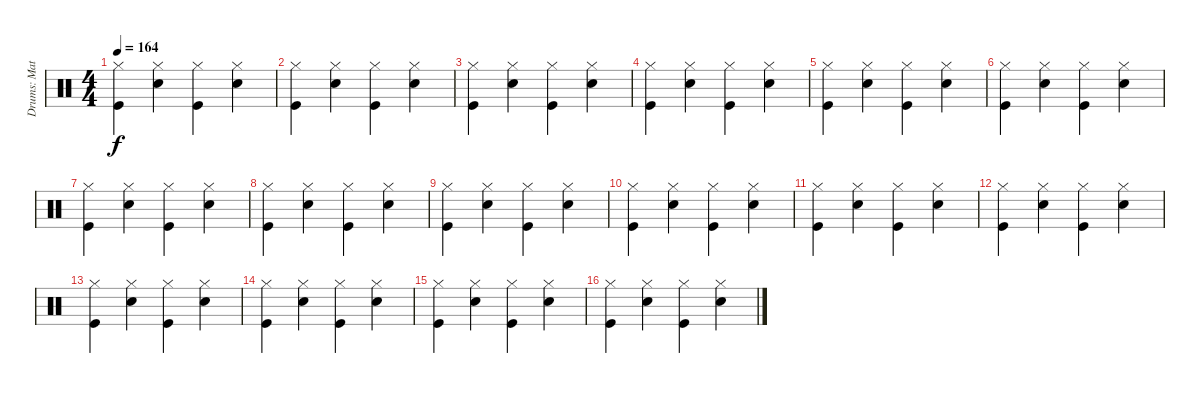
\track ("Drums: Matt" "Drums: Mat") {instrument percussion}
\staff {score}
\articulation defaults
\ts (4 4)
\tempo 164
\clef neutral
\ks c
("Hi-Hat (closed)" "Kick (hit)").4{dy f} ("Hi-Hat (closed)" "Snare (hit) 2").4 ("Hi-Hat (closed)" "Kick (hit)").4 ("Hi-Hat (closed)" "Snare (hit) 2").4 |
("Hi-Hat (closed)" "Kick (hit)").4 ("Hi-Hat (closed)" "Snare (hit) 2").4 ("Hi-Hat (closed)" "Kick (hit)").4 ("Hi-Hat (closed)" "Snare (hit) 2").4 |
("Hi-Hat (closed)" "Kick (hit)").4 ("Hi-Hat (closed)" "Snare (hit) 2").4 ("Hi-Hat (closed)" "Kick (hit)").4 ("Hi-Hat (closed)" "Snare (hit) 2").4 |
("Hi-Hat (closed)" "Kick (hit)").4 ("Hi-Hat (closed)" "Snare (hit) 2").4 ("Hi-Hat (closed)" "Kick (hit)").4 ("Hi-Hat (closed)" "Snare (hit) 2").4 |
("Hi-Hat (closed)" "Kick (hit)").4 ("Hi-Hat (closed)" "Snare (hit) 2").4 ("Hi-Hat (closed)" "Kick (hit)").4 ("Hi-Hat (closed)" "Snare (hit) 2").4 |
("Hi-Hat (closed)" "Kick (hit)").4 ("Hi-Hat (closed)" "Snare (hit) 2").4 ("Hi-Hat (closed)" "Kick (hit)").4 ("Hi-Hat (closed)" "Snare (hit) 2").4 |
("Hi-Hat (closed)" "Kick (hit)").4 ("Hi-Hat (closed)" "Snare (hit) 2").4 ("Hi-Hat (closed)" "Kick (hit)").4 ("Hi-Hat (closed)" "Snare (hit) 2").4 |
("Hi-Hat (closed)" "Kick (hit)").4 ("Hi-Hat (closed)" "Snare (hit) 2").4 ("Hi-Hat (closed)" "Kick (hit)").4 ("Hi-Hat (closed)" "Snare (hit) 2").4 |
("Hi-Hat (closed)" "Kick (hit)").4 ("Hi-Hat (closed)" "Snare (hit) 2").4 ("Hi-Hat (closed)" "Kick (hit)").4 ("Hi-Hat (closed)" "Snare (hit) 2").4 |
("Hi-Hat (closed)" "Kick (hit)").4 ("Hi-Hat (closed)" "Snare (hit) 2").4 ("Hi-Hat (closed)" "Kick (hit)").4 ("Hi-Hat (closed)" "Snare (hit) 2").4 |
("Hi-Hat (closed)" "Kick (hit)").4 ("Hi-Hat (closed)" "Snare (hit) 2").4 ("Hi-Hat (closed)" "Kick (hit)").4 ("Hi-Hat (closed)" "Snare (hit) 2").4 |
("Hi-Hat (closed)" "Kick (hit)").4 ("Hi-Hat (closed)" "Snare (hit) 2").4 ("Hi-Hat (closed)" "Kick (hit)").4 ("Hi-Hat (closed)" "Snare (hit) 2").4 |
("Hi-Hat (closed)" "Kick (hit)").4 ("Hi-Hat (closed)" "Snare (hit) 2").4 ("Hi-Hat (closed)" "Kick (hit)").4 ("Hi-Hat (closed)" "Snare (hit) 2").4 |
("Hi-Hat (closed)" "Kick (hit)").4 ("Hi-Hat (closed)" "Snare (hit) 2").4 ("Hi-Hat (closed)" "Kick (hit)").4 ("Hi-Hat (closed)" "Snare (hit) 2").4 |
("Hi-Hat (closed)" "Kick (hit)").4 ("Hi-Hat (closed)" "Snare (hit) 2").4 ("Hi-Hat (closed)" "Kick (hit)").4 ("Hi-Hat (closed)" "Snare (hit) 2").4 |
("Hi-Hat (closed)" "Kick (hit)").4 ("Hi-Hat (closed)" "Snare (hit) 2").4 ("Hi-Hat (closed)" "Kick (hit)").4 ("Hi-Hat (closed)" "Snare (hit) 2").4
